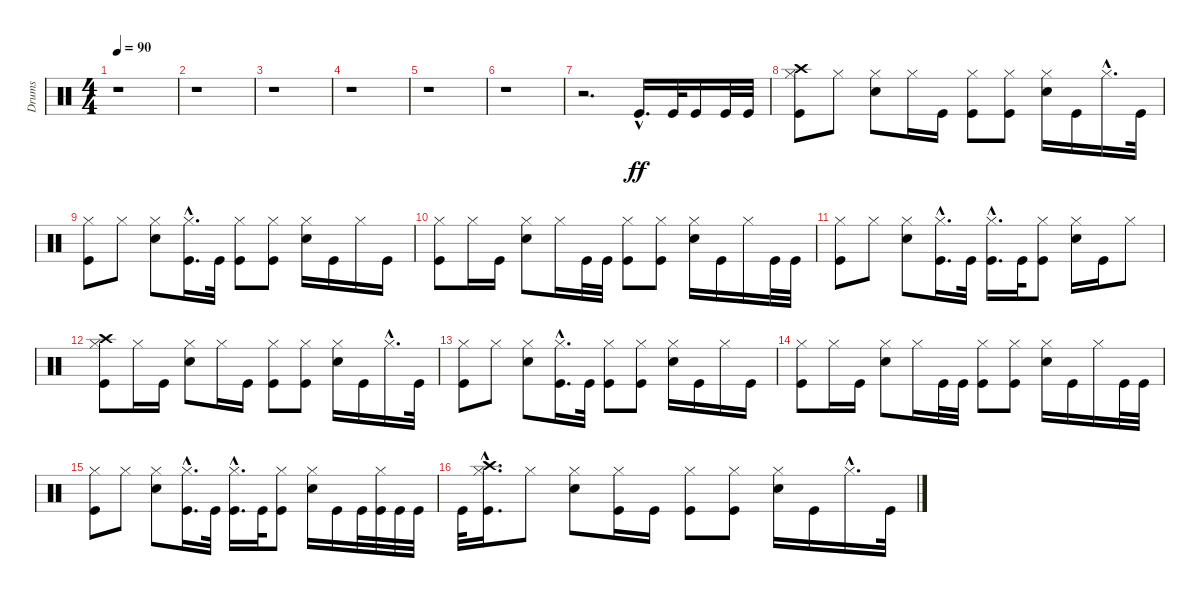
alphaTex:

\track ("Drums" "Drums") {instrument percussion}
\staff {score}
\articulation defaults
\ts (4 4)
\tempo 90
\clef neutral
\ks c
r.1{dy ff} |
r.1 |
r.1 |
r.1 |
r.1 |
r.1 |
r.2{d} "Kick (hit)"{hac}.16{d} "Kick (hit)".32 "Kick (hit)".16 "Kick (hit)".32 "Kick (hit)".32 |
("Kick (hit)" "Hi-Hat (closed)" "Crash high (hit)").8 "Hi-Hat (closed)".8 ("Electric Snare (hit)" "Hi-Hat (closed)").8 "Hi-Hat (closed)".16 "Kick (hit)".16 ("Kick (hit)" "Hi-Hat (closed)").8 ("Kick (hit)" "Hi-Hat (closed)").8 ("Electric Snare (hit)" "Hi-Hat (closed)").16 "Kick (hit)".16 "Hi-Hat (closed)"{hac}.16{d} "Kick (hit)".32 |
("Kick (hit)" "Hi-Hat (closed)").8 "Hi-Hat (closed)".8 ("Electric Snare (hit)" "Hi-Hat (closed)").8 ("Kick (hit)"{hac} "Hi-Hat (closed)"{hac}).16{d} "Kick (hit)".32 ("Kick (hit)" "Hi-Hat (closed)").8 ("Kick (hit)" "Hi-Hat (closed)").8 ("Electric Snare (hit)" "Hi-Hat (closed)").16 "Kick (hit)".16 "Hi-Hat (closed)".16 "Kick (hit)".16 |
("Kick (hit)" "Hi-Hat (closed)").8 "Hi-Hat (closed)".16 "Kick (hit)".16 ("Electric Snare (hit)" "Hi-Hat (closed)").8 "Hi-Hat (closed)".16 "Kick (hit)".32 "Kick (hit)".32 ("Kick (hit)" "Hi-Hat (closed)").8 ("Kick (hit)" "Hi-Hat (closed)").8 ("Electric Snare (hit)" "Hi-Hat (closed)").16 "Kick (hit)".16 "Hi-Hat (closed)".16 "Kick (hit)".32 "Kick (hit)".32 |
("Kick (hit)" "Hi-Hat (closed)").8 "Hi-Hat (closed)".8 ("Electric Snare (hit)" "Hi-Hat (closed)").8 ("Kick (hit)"{hac} "Hi-Hat (closed)"{hac}).16{d} "Kick (hit)".32 ("Kick (hit)"{hac} "Hi-Hat (closed)"{hac}).16{d} "Kick (hit)".32 ("Kick (hit)" "Hi-Hat (closed)").8 ("Electric Snare (hit)" "Hi-Hat (closed)").16 "Kick (hit)".16 "Hi-Hat (closed)".8 |
("Kick (hit)" "Hi-Hat (closed)" "Crash high (hit)").8 "Hi-Hat (closed)".16 "Kick (hit)".16 ("Electric Snare (hit)" "Hi-Hat (closed)").8 "Hi-Hat (closed)".16 "Kick (hit)".16 ("Kick (hit)" "Hi-Hat (closed)").8 ("Kick (hit)" "Hi-Hat (closed)").8 ("Electric Snare (hit)" "Hi-Hat (closed)").16 "Kick (hit)".16 "Hi-Hat (closed)"{hac}.16{d} "Kick (hit)".32 |
("Kick (hit)" "Hi-Hat (closed)").8 "Hi-Hat (closed)".8 ("Electric Snare (hit)" "Hi-Hat (closed)").8 ("Kick (hit)"{hac} "Hi-Hat (closed)"{hac}).16{d} "Kick (hit)".32 ("Kick (hit)" "Hi-Hat (closed)").8 ("Kick (hit)" "Hi-Hat (closed)").8 ("Electric Snare (hit)" "Hi-Hat (closed)").16 "Kick (hit)".16 "Hi-Hat (closed)".16 "Kick (hit)".16 |
("Kick (hit)" "Hi-Hat (closed)").8 "Hi-Hat (closed)".16 "Kick (hit)".16 ("Electric Snare (hit)" "Hi-Hat (closed)").8 "Hi-Hat (closed)".16 "Kick (hit)".32 "Kick (hit)".32 ("Kick (hit)" "Hi-Hat (closed)").8 ("Kick (hit)" "Hi-Hat (closed)").8 ("Electric Snare (hit)" "Hi-Hat (closed)").16 "Kick (hit)".16 "Hi-Hat (closed)".16 "Kick (hit)".32 "Kick (hit)".32 |
("Kick (hit)" "Hi-Hat (closed)").8 "Hi-Hat (closed)".8 ("Electric Snare (hit)" "Hi-Hat (closed)").8 ("Kick (hit)"{hac} "Hi-Hat (closed)"{hac}).16{d} "Kick (hit)".32 ("Kick (hit)"{hac} "Hi-Hat (closed)"{hac}).16{d} "Kick (hit)".32 ("Kick (hit)" "Hi-Hat (closed)").8 ("Electric Snare (hit)" "Hi-Hat (closed)").16 "Kick (hit)".16 "Kick (hit)".32 ("Kick (hit)" "Hi-Hat (closed)").32 "Kick (hit)".32 "Kick (hit)".32 |
"Kick (hit)".32 ("Kick (hit)"{hac} "Hi-Hat (closed)"{hac} "Crash high (hit)"{hac}).16{d} "Hi-Hat (closed)".8 ("Electric Snare (hit)" "Hi-Hat (closed)").8 ("Kick (hit)" "Hi-Hat (closed)").16 "Kick (hit)".16 ("Kick (hit)" "Hi-Hat (closed)").8 ("Kick (hit)" "Hi-Hat (closed)").8 ("Electric Snare (hit)" "Hi-Hat (closed)").16 "Kick (hit)".16 "Hi-Hat (closed)"{hac}.16{d} "Kick (hit)".32
